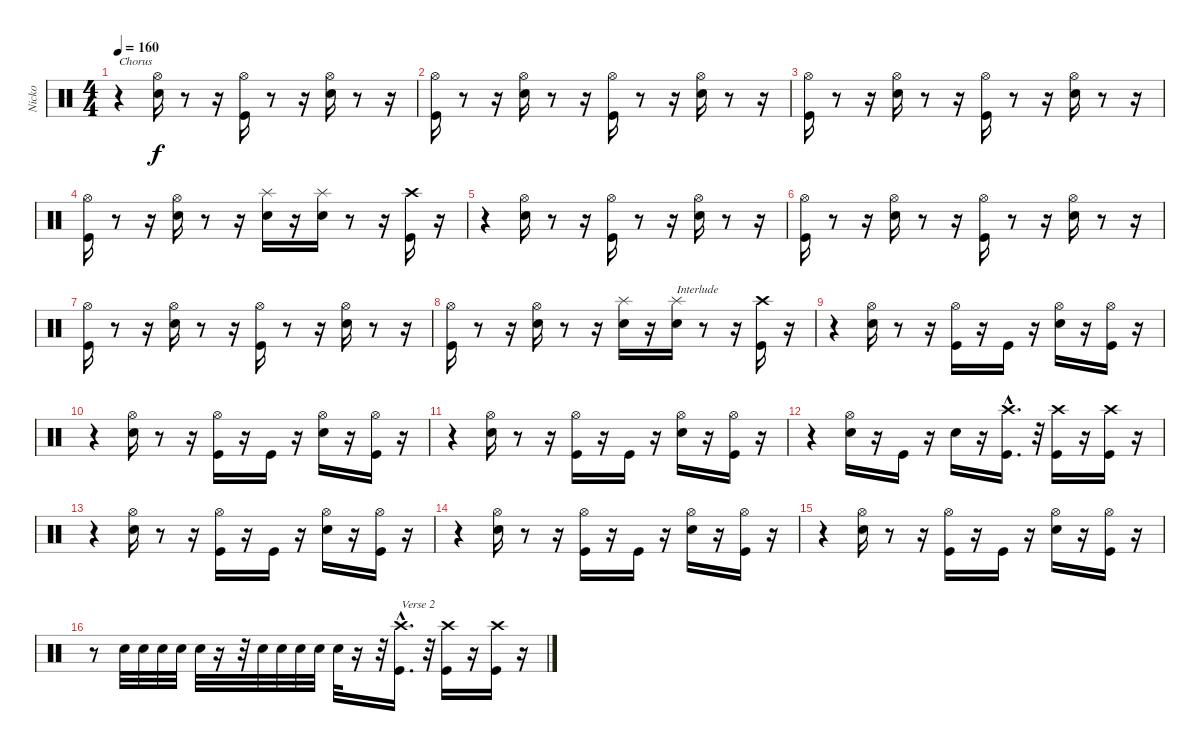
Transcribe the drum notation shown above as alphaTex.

\track ("Nicko" "Nicko") {instrument percussion}
\staff {score}
\articulation defaults
\ts (4 4)
\tempo 160
\clef neutral
\ks c
r.4{txt "Chorus" dy f} ("Snare (hit) 2" "Hi-Hat (open)").16 r.8 r.16 ("Kick (hit)" "Hi-Hat (open)").16 r.8 r.16 ("Snare (hit) 2" "Hi-Hat (open)").16 r.8 r.16 |
("Kick (hit)" "Hi-Hat (open)").16 r.8 r.16 ("Hi-Hat (open)" "Snare (hit) 2").16 r.8 r.16 ("Kick (hit)" "Hi-Hat (open)").16 r.8 r.16 ("Snare (hit) 2" "Hi-Hat (open)").16 r.8 r.16 |
("Kick (hit)" "Hi-Hat (open)").16 r.8 r.16 ("Hi-Hat (open)" "Snare (hit) 2").16 r.8 r.16 ("Kick (hit)" "Hi-Hat (open)").16 r.8 r.16 ("Snare (hit) 2" "Hi-Hat (open)").16 r.8 r.16 |
("Kick (hit)" "Hi-Hat (open)").16 r.8 r.16 ("Hi-Hat (open)" "Snare (hit) 2").16 r.8 r.16 ("Snare (hit) 2" "Splash (hit)").16 r.16 ("Snare (hit) 2" "Splash (hit)").16 r.8 r.16 ("Kick (hit)" "Crash high (hit)").16 r.16 |
r.4 ("Hi-Hat (open)" "Snare (hit) 2").16 r.8 r.16 ("Kick (hit)" "Hi-Hat (open)").16 r.8 r.16 ("Snare (hit) 2" "Hi-Hat (open)").16 r.8 r.16 |
("Kick (hit)" "Hi-Hat (open)").16 r.8 r.16 ("Hi-Hat (open)" "Snare (hit) 2").16 r.8 r.16 ("Kick (hit)" "Hi-Hat (open)").16 r.8 r.16 ("Snare (hit) 2" "Hi-Hat (open)").16 r.8 r.16 |
("Kick (hit)" "Hi-Hat (open)").16 r.8 r.16 ("Hi-Hat (open)" "Snare (hit) 2").16 r.8 r.16 ("Kick (hit)" "Hi-Hat (open)").16 r.8 r.16 ("Snare (hit) 2" "Hi-Hat (open)").16 r.8 r.16 |
("Kick (hit)" "Hi-Hat (open)").16 r.8 r.16 ("Hi-Hat (open)" "Snare (hit) 2").16 r.8 r.16 ("Snare (hit) 2" "Splash (hit)").16 r.16 ("Snare (hit) 2" "Splash (hit)").16{txt "Interlude"} r.8 r.16 ("Kick (hit)" "Crash high (hit)").16 r.16 |
r.4 ("Hi-Hat (open)" "Snare (hit) 2").16 r.8 r.16 ("Hi-Hat (open)" "Kick (hit)").16 r.16 "Kick (hit)".16 r.16 ("Snare (hit) 2" "Hi-Hat (open)").16 r.16 ("Kick (hit)" "Hi-Hat (open)").16 r.16 |
r.4 ("Snare (hit) 2" "Hi-Hat (open)").16 r.8 r.16 ("Hi-Hat (open)" "Kick (hit)").16 r.16 "Kick (hit)".16 r.16 ("Snare (hit) 2" "Hi-Hat (open)").16 r.16 ("Kick (hit)" "Hi-Hat (open)").16 r.16 |
r.4 ("Snare (hit) 2" "Hi-Hat (open)").16 r.8 r.16 ("Hi-Hat (open)" "Kick (hit)").16 r.16 "Kick (hit)".16 r.16 ("Snare (hit) 2" "Hi-Hat (open)").16 r.16 ("Kick (hit)" "Hi-Hat (open)").16 r.16 |
r.4 ("Hi-Hat (open)" "Snare (hit) 2").16 r.16 "Kick (hit)".16 r.16 "Snare (hit) 2".16 r.16 ("Kick (hit)"{hac} "Crash high (hit)"{hac}).16{d} r.32 ("Crash high (hit)" "Kick (hit)").16 r.16 ("Kick (hit)" "Crash high (hit)").16 r.16 |
r.4 ("Snare (hit) 2" "Hi-Hat (open)").16 r.8 r.16 ("Hi-Hat (open)" "Kick (hit)").16 r.16 "Kick (hit)".16 r.16 ("Snare (hit) 2" "Hi-Hat (open)").16 r.16 ("Kick (hit)" "Hi-Hat (open)").16 r.16 |
r.4 ("Snare (hit) 2" "Hi-Hat (open)").16 r.8 r.16 ("Hi-Hat (open)" "Kick (hit)").16 r.16 "Kick (hit)".16 r.16 ("Snare (hit) 2" "Hi-Hat (open)").16 r.16 ("Kick (hit)" "Hi-Hat (open)").16 r.16 |
r.4 ("Snare (hit) 2" "Hi-Hat (open)").16 r.8 r.16 ("Hi-Hat (open)" "Kick (hit)").16 r.16 "Kick (hit)".16 r.16 ("Snare (hit) 2" "Hi-Hat (open)").16 r.16 ("Kick (hit)" "Hi-Hat (open)").16 r.16 |
r.8 "Snare (hit) 2".32 "Snare (hit) 2".32 "Snare (hit) 2".32 "Snare (hit) 2".32 "Snare (hit) 2".32 r.16 r.32 "Snare (hit) 2".32 "Snare (hit) 2".32 "Snare (hit) 2".32 "Snare (hit) 2".32 "Snare (hit) 2".32 r.16 r.32 ("Crash high (hit)"{hac} "Kick (hit)"{hac}).16{d txt "Verse 2"} r.32 ("Crash high (hit)" "Kick (hit)").16 r.16 ("Kick (hit)" "Crash high (hit)").16 r.16
